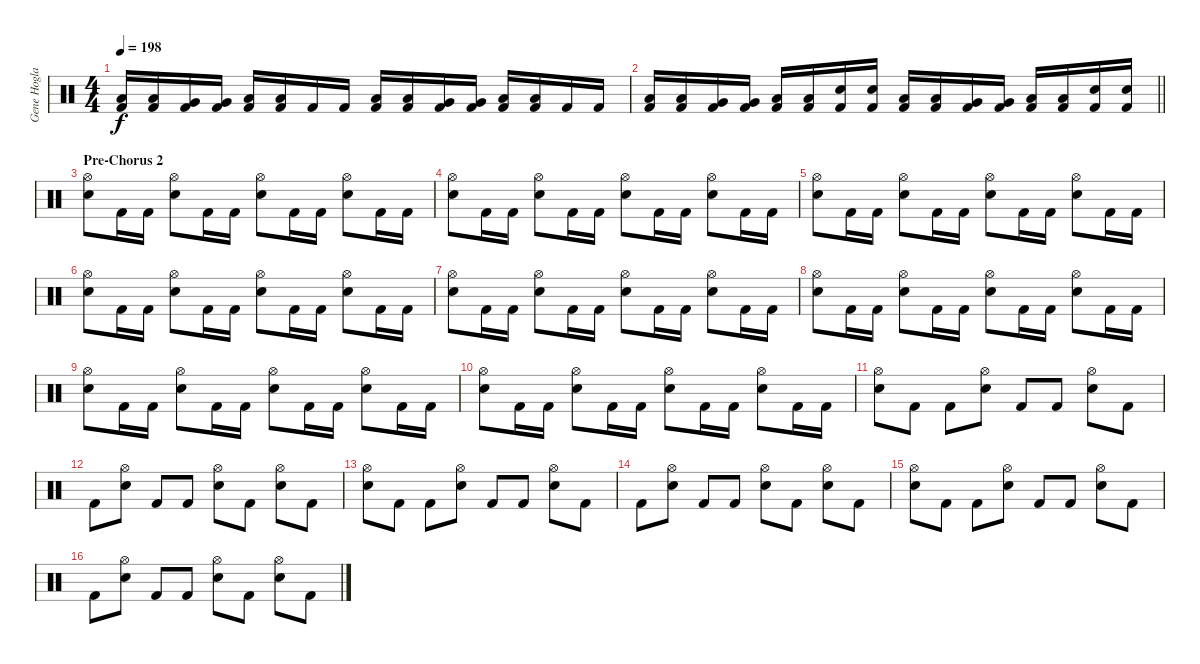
\track ("Gene Hoglan" "Gene Hogla") {instrument percussion}
\staff {score}
\articulation defaults
\ts (4 4)
\tempo 198
\clef neutral
\ks c
("Low Tom (hit)" "Kick (hit) 2").16{dy f} ("Low Tom (hit)" "Kick (hit) 2").16 ("Very Low Tom (hit)" "Kick (hit) 2").16 ("Very Low Tom (hit)" "Kick (hit) 2").16 ("Low Floor Tom (hit)" "Kick (hit) 2").16 ("Low Floor Tom (hit)" "Kick (hit) 2").16 "Kick (hit) 2".16 "Kick (hit) 2".16 ("Low Tom (hit)" "Kick (hit) 2").16 ("Low Tom (hit)" "Kick (hit) 2").16 ("Very Low Tom (hit)" "Kick (hit) 2").16 ("Very Low Tom (hit)" "Kick (hit) 2").16 ("Low Floor Tom (hit)" "Kick (hit) 2").16 ("Low Floor Tom (hit)" "Kick (hit) 2").16 "Kick (hit) 2".16 "Kick (hit) 2".16 |
\barLineRight lightlight
("Low Tom (hit)" "Kick (hit) 2").16 ("Low Tom (hit)" "Kick (hit) 2").16 ("Very Low Tom (hit)" "Kick (hit) 2").16 ("Very Low Tom (hit)" "Kick (hit) 2").16 ("Low Floor Tom (hit)" "Kick (hit) 2").16 ("Low Floor Tom (hit)" "Kick (hit) 2").16 ("Snare (hit) 2" "Kick (hit) 2").16 ("Snare (hit) 2" "Kick (hit) 2").16 ("Low Tom (hit)" "Kick (hit) 2").16 ("Low Tom (hit)" "Kick (hit) 2").16 ("Very Low Tom (hit)" "Kick (hit) 2").16 ("Very Low Tom (hit)" "Kick (hit) 2").16 ("Low Floor Tom (hit)" "Kick (hit) 2").16 ("Low Floor Tom (hit)" "Kick (hit) 2").16 ("Snare (hit) 2" "Kick (hit) 2").16 ("Snare (hit) 2" "Kick (hit) 2").16 |
\section ("" "Pre-Chorus 2")
("Hi-Hat (open)" "Snare (hit) 2").8 "Kick (hit) 2".16 "Kick (hit) 2".16 ("Hi-Hat (open)" "Snare (hit) 2").8 "Kick (hit) 2".16 "Kick (hit) 2".16 ("Hi-Hat (open)" "Snare (hit) 2").8 "Kick (hit) 2".16 "Kick (hit) 2".16 ("Hi-Hat (open)" "Snare (hit) 2").8 "Kick (hit) 2".16 "Kick (hit) 2".16 |
("Hi-Hat (open)" "Snare (hit) 2").8 "Kick (hit) 2".16 "Kick (hit) 2".16 ("Hi-Hat (open)" "Snare (hit) 2").8 "Kick (hit) 2".16 "Kick (hit) 2".16 ("Hi-Hat (open)" "Snare (hit) 2").8 "Kick (hit) 2".16 "Kick (hit) 2".16 ("Hi-Hat (open)" "Snare (hit) 2").8 "Kick (hit) 2".16 "Kick (hit) 2".16 |
("Hi-Hat (open)" "Snare (hit) 2").8 "Kick (hit) 2".16 "Kick (hit) 2".16 ("Hi-Hat (open)" "Snare (hit) 2").8 "Kick (hit) 2".16 "Kick (hit) 2".16 ("Hi-Hat (open)" "Snare (hit) 2").8 "Kick (hit) 2".16 "Kick (hit) 2".16 ("Hi-Hat (open)" "Snare (hit) 2").8 "Kick (hit) 2".16 "Kick (hit) 2".16 |
("Hi-Hat (open)" "Snare (hit) 2").8 "Kick (hit) 2".16 "Kick (hit) 2".16 ("Hi-Hat (open)" "Snare (hit) 2").8 "Kick (hit) 2".16 "Kick (hit) 2".16 ("Hi-Hat (open)" "Snare (hit) 2").8 "Kick (hit) 2".16 "Kick (hit) 2".16 ("Hi-Hat (open)" "Snare (hit) 2").8 "Kick (hit) 2".16 "Kick (hit) 2".16 |
("Hi-Hat (open)" "Snare (hit) 2").8 "Kick (hit) 2".16 "Kick (hit) 2".16 ("Hi-Hat (open)" "Snare (hit) 2").8 "Kick (hit) 2".16 "Kick (hit) 2".16 ("Hi-Hat (open)" "Snare (hit) 2").8 "Kick (hit) 2".16 "Kick (hit) 2".16 ("Hi-Hat (open)" "Snare (hit) 2").8 "Kick (hit) 2".16 "Kick (hit) 2".16 |
("Hi-Hat (open)" "Snare (hit) 2").8 "Kick (hit) 2".16 "Kick (hit) 2".16 ("Hi-Hat (open)" "Snare (hit) 2").8 "Kick (hit) 2".16 "Kick (hit) 2".16 ("Hi-Hat (open)" "Snare (hit) 2").8 "Kick (hit) 2".16 "Kick (hit) 2".16 ("Hi-Hat (open)" "Snare (hit) 2").8 "Kick (hit) 2".16 "Kick (hit) 2".16 |
("Hi-Hat (open)" "Snare (hit) 2").8 "Kick (hit) 2".16 "Kick (hit) 2".16 ("Hi-Hat (open)" "Snare (hit) 2").8 "Kick (hit) 2".16 "Kick (hit) 2".16 ("Hi-Hat (open)" "Snare (hit) 2").8 "Kick (hit) 2".16 "Kick (hit) 2".16 ("Hi-Hat (open)" "Snare (hit) 2").8 "Kick (hit) 2".16 "Kick (hit) 2".16 |
("Hi-Hat (open)" "Snare (hit) 2").8 "Kick (hit) 2".16 "Kick (hit) 2".16 ("Hi-Hat (open)" "Snare (hit) 2").8 "Kick (hit) 2".16 "Kick (hit) 2".16 ("Hi-Hat (open)" "Snare (hit) 2").8 "Kick (hit) 2".16 "Kick (hit) 2".16 ("Hi-Hat (open)" "Snare (hit) 2").8 "Kick (hit) 2".16 "Kick (hit) 2".16 |
("Hi-Hat (open)" "Snare (hit) 2").8 "Kick (hit) 2".8 "Kick (hit) 2".8 ("Hi-Hat (open)" "Snare (hit) 2").8 "Kick (hit) 2".8 "Kick (hit) 2".8 ("Hi-Hat (open)" "Snare (hit) 2").8 "Kick (hit) 2".8 |
"Kick (hit) 2".8 ("Hi-Hat (open)" "Snare (hit) 2").8 "Kick (hit) 2".8 "Kick (hit) 2".8 ("Hi-Hat (open)" "Snare (hit) 2").8 "Kick (hit) 2".8 ("Hi-Hat (open)" "Snare (hit) 2").8 "Kick (hit) 2".8 |
("Hi-Hat (open)" "Snare (hit) 2").8 "Kick (hit) 2".8 "Kick (hit) 2".8 ("Hi-Hat (open)" "Snare (hit) 2").8 "Kick (hit) 2".8 "Kick (hit) 2".8 ("Hi-Hat (open)" "Snare (hit) 2").8 "Kick (hit) 2".8 |
"Kick (hit) 2".8 ("Hi-Hat (open)" "Snare (hit) 2").8 "Kick (hit) 2".8 "Kick (hit) 2".8 ("Hi-Hat (open)" "Snare (hit) 2").8 "Kick (hit) 2".8 ("Hi-Hat (open)" "Snare (hit) 2").8 "Kick (hit) 2".8 |
("Hi-Hat (open)" "Snare (hit) 2").8 "Kick (hit) 2".8 "Kick (hit) 2".8 ("Hi-Hat (open)" "Snare (hit) 2").8 "Kick (hit) 2".8 "Kick (hit) 2".8 ("Hi-Hat (open)" "Snare (hit) 2").8 "Kick (hit) 2".8 |
"Kick (hit) 2".8 ("Hi-Hat (open)" "Snare (hit) 2").8 "Kick (hit) 2".8 "Kick (hit) 2".8 ("Hi-Hat (open)" "Snare (hit) 2").8 "Kick (hit) 2".8 ("Hi-Hat (open)" "Snare (hit) 2").8 "Kick (hit) 2".8
